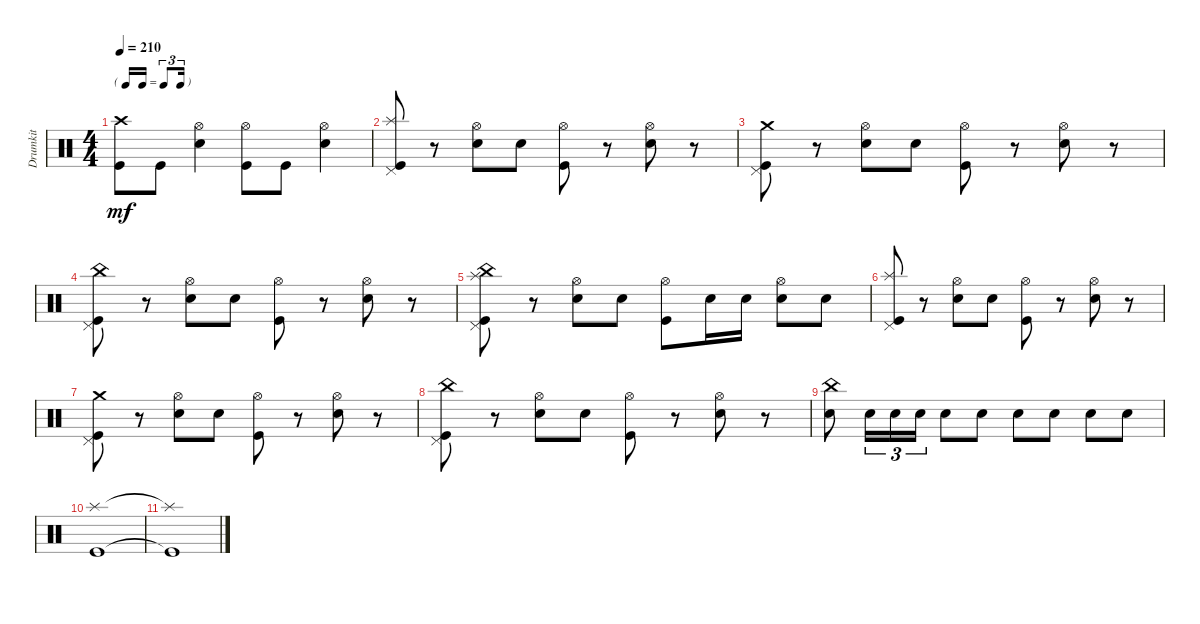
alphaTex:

\track ("Drumkit" "Drumkit") {instrument percussion}
\staff {score}
\articulation defaults
\ts (4 4)
\tf triplet16th
\tempo 210
\clef neutral
\ks c
("Kick (hit)"{t} "Crash high (hit)"{t}).8{dy mf} "Kick (hit)".8 ("Snare (hit) 2" "Hi-Hat (open)").4 ("Kick (hit)" "Hi-Hat (open)").8 "Kick (hit)".8 ("Snare (hit) 2" "Hi-Hat (open)").4 |
("Splash (hit)" "Pedal Hi-Hat (hit)" "Kick (hit)").8 r.8 ("Snare (hit) 2" "Hi-Hat (open)").8 "Snare (hit) 2".8 ("Hi-Hat (open)" "Kick (hit)").8 r.8 ("Hi-Hat (open)" "Snare (hit) 2").8 r.8 |
("Pedal Hi-Hat (hit)" "Kick (hit)" "Crash medium (hit)").8 r.8 ("Snare (hit) 2" "Hi-Hat (open)").8 "Snare (hit) 2".8 ("Hi-Hat (open)" "Kick (hit)").8 r.8 ("Hi-Hat (open)" "Snare (hit) 2").8 r.8 |
("Pedal Hi-Hat (hit)" "Kick (hit)" "China (hit)").8 r.8 ("Snare (hit) 2" "Hi-Hat (open)").8 "Snare (hit) 2".8 ("Hi-Hat (open)" "Kick (hit)").8 r.8 ("Hi-Hat (open)" "Snare (hit) 2").8 r.8 |
("Splash (hit)" "Pedal Hi-Hat (hit)" "Kick (hit)" "China (hit)").8 r.8 ("Snare (hit) 2" "Hi-Hat (open)").8 "Snare (hit) 2".8 ("Hi-Hat (open)" "Kick (hit)").8 "Snare (hit) 2".16 "Snare (hit) 2".16 ("Hi-Hat (open)" "Snare (hit) 2").8 "Snare (hit) 2".8 |
("Splash (hit)" "Pedal Hi-Hat (hit)" "Kick (hit)").8 r.8 ("Snare (hit) 2" "Hi-Hat (open)").8 "Snare (hit) 2".8 ("Hi-Hat (open)" "Kick (hit)").8 r.8 ("Hi-Hat (open)" "Snare (hit) 2").8 r.8 |
("Pedal Hi-Hat (hit)" "Kick (hit)" "Crash medium (hit)").8 r.8 ("Snare (hit) 2" "Hi-Hat (open)").8 "Snare (hit) 2".8 ("Hi-Hat (open)" "Kick (hit)").8 r.8 ("Hi-Hat (open)" "Snare (hit) 2").8 r.8 |
("Pedal Hi-Hat (hit)" "Kick (hit)" "China (hit)").8 r.8 ("Snare (hit) 2" "Hi-Hat (open)").8 "Snare (hit) 2".8 ("Hi-Hat (open)" "Kick (hit)").8 r.8 ("Hi-Hat (open)" "Snare (hit) 2").8 r.8 |
("Snare (hit) 2" "China (hit)").8 "Snare (hit) 2".16{tu (3 2)} "Snare (hit) 2".16{tu (3 2)} "Snare (hit) 2".16{tu (3 2)} "Snare (hit) 2".8 "Snare (hit) 2".8 "Snare (hit) 2".8 "Snare (hit) 2".8 "Snare (hit) 2".8 "Snare (hit) 2".8 |
("Splash (hit)" "Kick (hit)").1 |
("Splash (hit)"{t} "Kick (hit)"{t}).1
